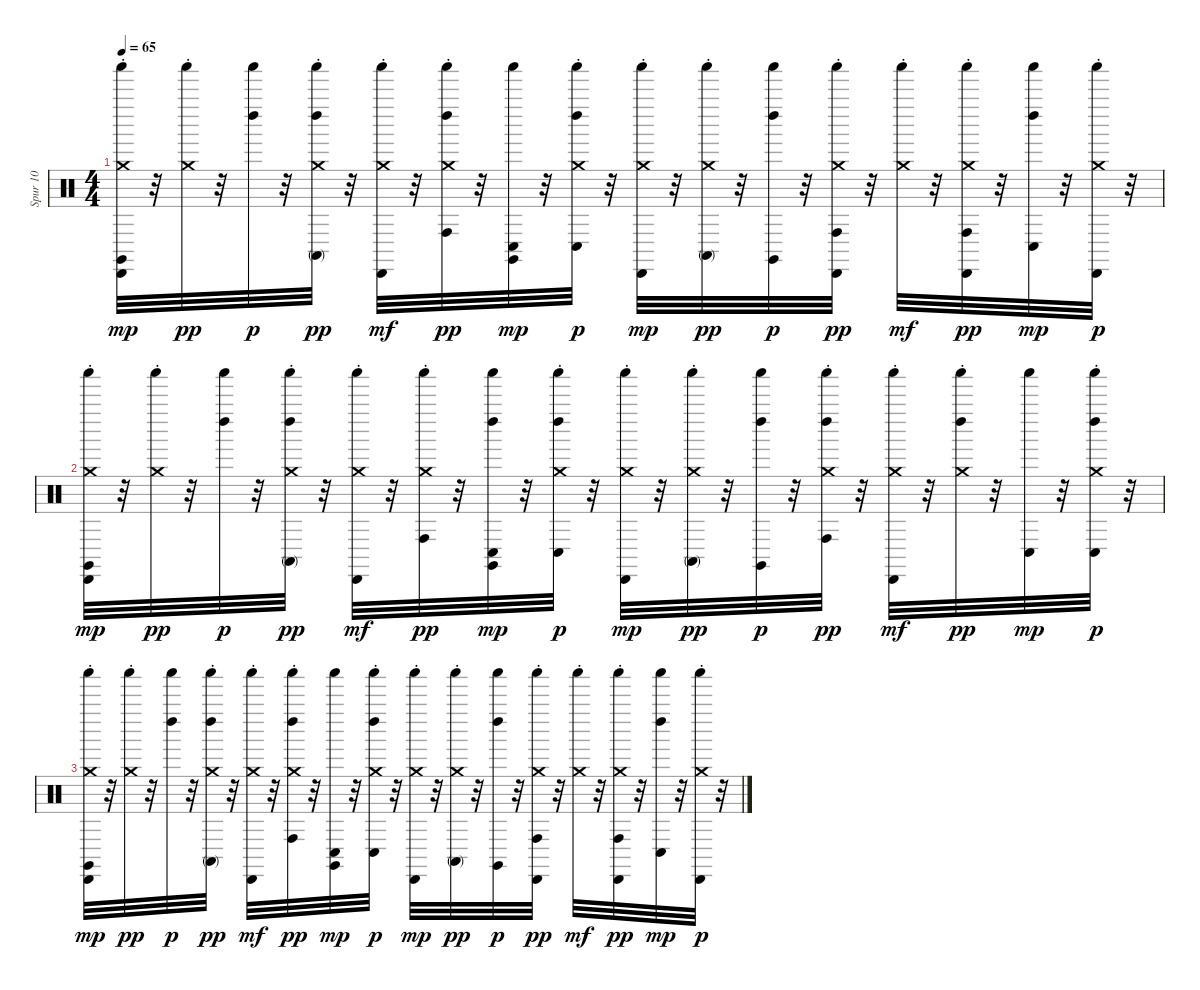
\track ("Spur 10" "Spur 10") {instrument percussion}
\staff {score}
\articulation defaults
\ts (4 4)
\tempo 65
\clef neutral
\ks c
("Claves (hit)" "Cabasa (hit)" "Shaker (hit)" "Crash medium (choke)").32{dy mp} r.32 ("Shaker (hit)" "Crash medium (choke)").32{dy pp} r.32 ("Left Maraca (hit)" "Shaker (hit)").32{dy p} r.32 ("Conga high (mute)" "Left Maraca (hit)" "Shaker (hit)" "Crash medium (choke)").32{dy pp} r.32 ("Cabasa (hit)" "Shaker (hit)" "Crash medium (choke)").32{dy mf} r.32 ("Conga high (hit)" "Left Maraca (hit)" "Shaker (hit)" "Crash medium (choke)").32{dy pp} r.32 ("Claves (hit)" "Conga low (hit)" "Shaker (hit)").32{dy mp} r.32 ("Conga low (hit)" "Left Maraca (hit)" "Shaker (hit)" "Crash medium (choke)").32{dy p} r.32 ("Cabasa (hit)" "Shaker (hit)" "Crash medium (choke)").32{dy mp} r.32 ("Conga high (mute)" "Shaker (hit)" "Crash medium (choke)").32{dy pp} r.32 ("Claves (hit)" "Left Maraca (hit)" "Shaker (hit)").32{dy p} r.32 ("Conga high (hit)" "Cabasa (hit)" "Shaker (hit)" "Crash medium (choke)").32{dy pp} r.32 ("Shaker (hit)" "Crash medium (choke)").32{dy mf} r.32 ("Conga high (hit)" "Cabasa (hit)" "Shaker (hit)" "Crash medium (choke)").32{dy pp} r.32 ("Conga low (hit)" "Left Maraca (hit)" "Shaker (hit)").32{dy mp} r.32 ("Cabasa (hit)" "Shaker (hit)" "Crash medium (choke)").32{dy p} r.32 |
("Claves (hit)" "Cabasa (hit)" "Shaker (hit)" "Crash medium (choke)").32{dy mp} r.32 ("Shaker (hit)" "Crash medium (choke)").32{dy pp} r.32 ("Left Maraca (hit)" "Shaker (hit)").32{dy p} r.32 ("Conga high (mute)" "Left Maraca (hit)" "Shaker (hit)" "Crash medium (choke)").32{dy pp} r.32 ("Cabasa (hit)" "Shaker (hit)" "Crash medium (choke)").32{dy mf} r.32 ("Conga high (hit)" "Shaker (hit)" "Crash medium (choke)").32{dy pp} r.32 ("Claves (hit)" "Conga low (hit)" "Left Maraca (hit)" "Shaker (hit)").32{dy mp} r.32 ("Conga low (hit)" "Left Maraca (hit)" "Shaker (hit)" "Crash medium (choke)").32{dy p} r.32 ("Cabasa (hit)" "Shaker (hit)" "Crash medium (choke)").32{dy mp} r.32 ("Conga high (mute)" "Shaker (hit)" "Crash medium (choke)").32{dy pp} r.32 ("Claves (hit)" "Left Maraca (hit)" "Shaker (hit)").32{dy p} r.32 ("Conga high (hit)" "Left Maraca (hit)" "Shaker (hit)" "Crash medium (choke)").32{dy pp} r.32 ("Cabasa (hit)" "Shaker (hit)" "Crash medium (choke)").32{dy mf} r.32 ("Left Maraca (hit)" "Shaker (hit)" "Crash medium (choke)").32{dy pp} r.32 ("Conga low (hit)" "Shaker (hit)").32{dy mp} r.32 ("Conga low (hit)" "Left Maraca (hit)" "Shaker (hit)" "Crash medium (choke)").32{dy p} r.32 |
("Claves (hit)" "Cabasa (hit)" "Shaker (hit)" "Crash medium (choke)").32{dy mp} r.32 ("Shaker (hit)" "Crash medium (choke)").32{dy pp} r.32 ("Left Maraca (hit)" "Shaker (hit)").32{dy p} r.32 ("Conga high (mute)" "Left Maraca (hit)" "Shaker (hit)" "Crash medium (choke)").32{dy pp} r.32 ("Cabasa (hit)" "Shaker (hit)" "Crash medium (choke)").32{dy mf} r.32 ("Conga high (hit)" "Left Maraca (hit)" "Shaker (hit)" "Crash medium (choke)").32{dy pp} r.32 ("Claves (hit)" "Conga low (hit)" "Shaker (hit)").32{dy mp} r.32 ("Conga low (hit)" "Left Maraca (hit)" "Shaker (hit)" "Crash medium (choke)").32{dy p} r.32 ("Cabasa (hit)" "Shaker (hit)" "Crash medium (choke)").32{dy mp} r.32 ("Conga high (mute)" "Shaker (hit)" "Crash medium (choke)").32{dy pp} r.32 ("Claves (hit)" "Left Maraca (hit)" "Shaker (hit)").32{dy p} r.32 ("Conga high (hit)" "Cabasa (hit)" "Shaker (hit)" "Crash medium (choke)").32{dy pp} r.32 ("Shaker (hit)" "Crash medium (choke)").32{dy mf} r.32 ("Conga high (hit)" "Cabasa (hit)" "Shaker (hit)" "Crash medium (choke)").32{dy pp} r.32 ("Conga low (hit)" "Left Maraca (hit)" "Shaker (hit)").32{dy mp} r.32 ("Cabasa (hit)" "Shaker (hit)" "Crash medium (choke)").32{dy p} r.32
